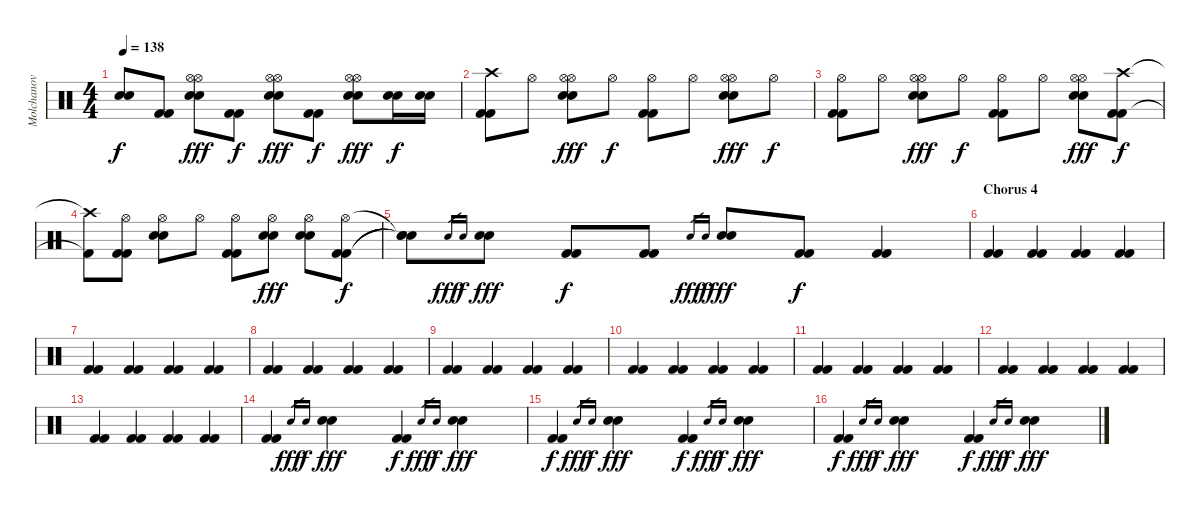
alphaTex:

\track ("Molchanov" "Molchanov") {instrument percussion}
\staff {score}
\articulation defaults
\ts (4 4)
\tempo 138
\clef neutral
\ks c
("Snare (hit)"{t} "Snare (hit)"{t}).8{dy f} ("Kick (hit) 2" "Kick (hit) 2").8 ("Hi-Hat (open)" "Hi-Hat (open)" "Electric Snare (hit)" "Electric Snare (hit)").8{dy fff} ("Kick (hit) 2" "Kick (hit) 2").8{dy f} ("Hi-Hat (open)" "Hi-Hat (open)" "Electric Snare (hit)" "Electric Snare (hit)").8{dy fff} ("Kick (hit) 2" "Kick (hit) 2").8{dy f} ("Hi-Hat (open)" "Hi-Hat (open)" "Electric Snare (hit)" "Electric Snare (hit)").8{dy fff} ("Electric Snare (hit)" "Electric Snare (hit)").16{dy f} ("Electric Snare (hit)" "Electric Snare (hit)").16 |
("Crash high (hit)" "Kick (hit) 2" "Kick (hit) 2").8 "Hi-Hat (open)".8 ("Hi-Hat (open)" "Hi-Hat (open)" "Electric Snare (hit)" "Electric Snare (hit)").8{dy fff} "Hi-Hat (open)".8{dy f} ("Hi-Hat (open)" "Kick (hit) 2" "Kick (hit) 2").8 "Hi-Hat (open)".8 ("Hi-Hat (open)" "Hi-Hat (open)" "Electric Snare (hit)" "Electric Snare (hit)").8{dy fff} "Hi-Hat (open)".8{dy f} |
("Hi-Hat (open)" "Kick (hit) 2" "Kick (hit) 2").8 "Hi-Hat (open)".8 ("Hi-Hat (open)" "Hi-Hat (open)" "Electric Snare (hit)" "Electric Snare (hit)").8{dy fff} "Hi-Hat (open)".8{dy f} ("Hi-Hat (open)" "Kick (hit) 2" "Kick (hit) 2").8 "Hi-Hat (open)".8 ("Hi-Hat (open)" "Hi-Hat (open)" "Electric Snare (hit)" "Electric Snare (hit)").8{dy fff} ("Crash high (hit)" "Kick (hit) 2" "Kick (hit) 2").8{dy f} |
("Crash high (hit)"{t} "Kick (hit) 2"{t}).8 ("Hi-Hat (open)" "Kick (hit) 2" "Kick (hit) 2").8 ("Hi-Hat (open)" "Electric Snare (hit)" "Electric Snare (hit)").8 "Hi-Hat (open)".8 ("Hi-Hat (open)" "Kick (hit) 2" "Kick (hit) 2").8 ("Hi-Hat (open)" "Electric Snare (hit)" "Electric Snare (hit)").8{dy fff} ("Hi-Hat (open)" "Electric Snare (hit)" "Electric Snare (hit)").8 ("Hi-Hat (open)" "Kick (hit) 2" "Kick (hit) 2").8{dy f} |
("Snare (hit)"{t} "Snare (hit)"{t} "Snare (hit)"{t}).8 "Electric Snare (hit)".16{gr dy fff} "Electric Snare (hit)".16{gr dy f} ("Electric Snare (hit)" "Electric Snare (hit)").8{dy fff} ("Kick (hit) 2" "Kick (hit) 2").8{dy f} ("Kick (hit) 2" "Kick (hit) 2").8 "Electric Snare (hit)".16{gr dy fff} "Electric Snare (hit)".16{gr dy f} ("Electric Snare (hit)" "Electric Snare (hit)").8{dy fff} ("Kick (hit) 2" "Kick (hit) 2").8{dy f} ("Kick (hit) 2" "Kick (hit) 2").4 |
\section ("" "Chorus 4")
("Kick (hit) 2" "Kick (hit) 2").4 ("Kick (hit) 2" "Kick (hit) 2").4 ("Kick (hit) 2" "Kick (hit) 2").4 ("Kick (hit) 2" "Kick (hit) 2").4 |
("Kick (hit) 2" "Kick (hit) 2").4 ("Kick (hit) 2" "Kick (hit) 2").4 ("Kick (hit) 2" "Kick (hit) 2").4 ("Kick (hit) 2" "Kick (hit) 2").4 |
("Kick (hit) 2" "Kick (hit) 2").4 ("Kick (hit) 2" "Kick (hit) 2").4 ("Kick (hit) 2" "Kick (hit) 2").4 ("Kick (hit) 2" "Kick (hit) 2").4 |
("Kick (hit) 2" "Kick (hit) 2").4 ("Kick (hit) 2" "Kick (hit) 2").4 ("Kick (hit) 2" "Kick (hit) 2").4 ("Kick (hit) 2" "Kick (hit) 2").4 |
("Kick (hit) 2" "Kick (hit) 2").4 ("Kick (hit) 2" "Kick (hit) 2").4 ("Kick (hit) 2" "Kick (hit) 2").4 ("Kick (hit) 2" "Kick (hit) 2").4 |
("Kick (hit) 2" "Kick (hit) 2").4 ("Kick (hit) 2" "Kick (hit) 2").4 ("Kick (hit) 2" "Kick (hit) 2").4 ("Kick (hit) 2" "Kick (hit) 2").4 |
("Kick (hit) 2" "Kick (hit) 2").4 ("Kick (hit) 2" "Kick (hit) 2").4 ("Kick (hit) 2" "Kick (hit) 2").4 ("Kick (hit) 2" "Kick (hit) 2").4 |
("Kick (hit) 2" "Kick (hit) 2").4 ("Kick (hit) 2" "Kick (hit) 2").4 ("Kick (hit) 2" "Kick (hit) 2").4 ("Kick (hit) 2" "Kick (hit) 2").4 |
("Kick (hit) 2" "Kick (hit) 2").4 "Electric Snare (hit)".16{gr dy fff} "Electric Snare (hit)".16{gr dy f} ("Electric Snare (hit)" "Electric Snare (hit)").4{dy fff} ("Kick (hit) 2" "Kick (hit) 2").4{dy f} "Electric Snare (hit)".16{gr dy fff} "Electric Snare (hit)".16{gr dy f} ("Electric Snare (hit)" "Electric Snare (hit)").4{dy fff} |
("Kick (hit) 2" "Kick (hit) 2").4{dy f} "Electric Snare (hit)".16{gr dy fff} "Electric Snare (hit)".16{gr dy f} ("Electric Snare (hit)" "Electric Snare (hit)").4{dy fff} ("Kick (hit) 2" "Kick (hit) 2").4{dy f} "Electric Snare (hit)".16{gr dy fff} "Electric Snare (hit)".16{gr dy f} ("Electric Snare (hit)" "Electric Snare (hit)").4{dy fff} |
("Kick (hit) 2" "Kick (hit) 2").4{dy f} "Electric Snare (hit)".16{gr dy fff} "Electric Snare (hit)".16{gr dy f} ("Electric Snare (hit)" "Electric Snare (hit)").4{dy fff} ("Kick (hit) 2" "Kick (hit) 2").4{dy f} "Electric Snare (hit)".16{gr dy fff} "Electric Snare (hit)".16{gr dy f} ("Electric Snare (hit)" "Electric Snare (hit)").4{dy fff}
